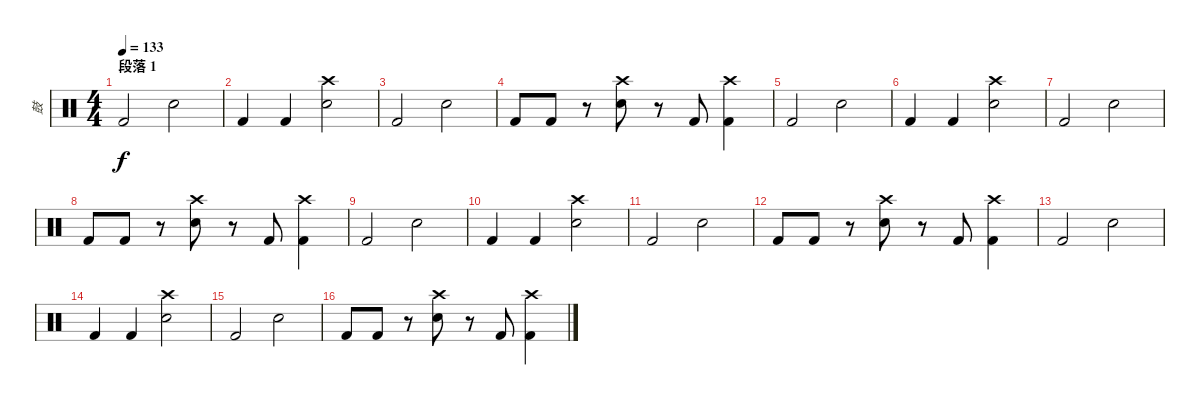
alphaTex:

\track ("鼓" "鼓") {instrument percussion}
\staff {score}
\articulation defaults
\ts (4 4)
\section ("" "段落 1")
\tempo 133
\clef neutral
\ks c "Kick (hit) 2".2{dy f} "Electric Snare (hit)".2
|
"Kick (hit) 2".4 "Kick (hit) 2".4 ("Electric Snare (hit)" "Crash high (hit)").2 |
"Kick (hit) 2".2 "Electric Snare (hit)".2 |
"Kick (hit) 2".8 "Kick (hit) 2".8 r.8 ("Electric Snare (hit)" "Crash high (hit)").8 r.8 "Kick (hit) 2".8 ("Kick (hit) 2" "Crash high (hit)").4 |
"Kick (hit) 2".2 "Electric Snare (hit)".2 |
"Kick (hit) 2".4 "Kick (hit) 2".4 ("Electric Snare (hit)" "Crash high (hit)").2 |
"Kick (hit) 2".2 "Electric Snare (hit)".2 |
"Kick (hit) 2".8 "Kick (hit) 2".8 r.8 ("Electric Snare (hit)" "Crash high (hit)").8 r.8 "Kick (hit) 2".8 ("Kick (hit) 2" "Crash high (hit)").4 |
"Kick (hit) 2".2 "Electric Snare (hit)".2 |
"Kick (hit) 2".4 "Kick (hit) 2".4 ("Electric Snare (hit)" "Crash high (hit)").2 |
"Kick (hit) 2".2 "Electric Snare (hit)".2 |
"Kick (hit) 2".8 "Kick (hit) 2".8 r.8 ("Electric Snare (hit)" "Crash high (hit)").8 r.8 "Kick (hit) 2".8 ("Kick (hit) 2" "Crash high (hit)").4 |
"Kick (hit) 2".2 "Electric Snare (hit)".2 |
"Kick (hit) 2".4 "Kick (hit) 2".4 ("Electric Snare (hit)" "Crash high (hit)").2 |
"Kick (hit) 2".2 "Electric Snare (hit)".2 |
"Kick (hit) 2".8 "Kick (hit) 2".8 r.8 ("Electric Snare (hit)" "Crash high (hit)").8 r.8 "Kick (hit) 2".8 ("Kick (hit) 2" "Crash high (hit)").4
